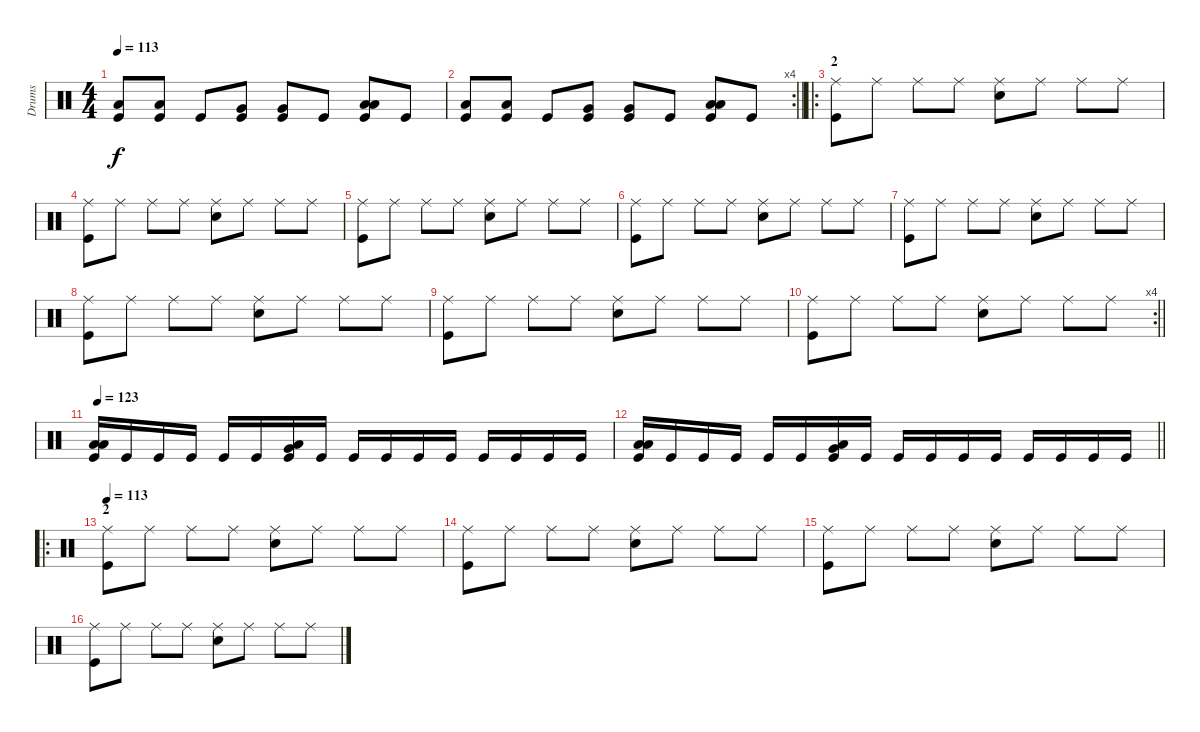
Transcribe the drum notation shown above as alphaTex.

\track ("Drums" "Drums") {instrument percussion}
\staff {score}
\articulation defaults
\ts (4 4)
\tempo 113
\clef neutral
\ks c
("Kick (hit)" "Low Tom (hit)").8{dy f} ("Kick (hit)" "Low Tom (hit)").8 "Kick (hit)".8 ("Kick (hit)" "Very Low Tom (hit)").8 ("Kick (hit)" "Very Low Tom (hit)").8 "Kick (hit)".8 ("Kick (hit)" "Low Floor Tom (hit)" "Low Floor Tom (hit)").8 "Kick (hit)".8 |
\rc 4
\barLineRight lightlight
("Kick (hit)" "Low Tom (hit)").8 ("Kick (hit)" "Low Tom (hit)").8 "Kick (hit)".8 ("Kick (hit)" "Very Low Tom (hit)").8 ("Kick (hit)" "Very Low Tom (hit)").8 "Kick (hit)".8 ("Kick (hit)" "Low Floor Tom (hit)" "Low Floor Tom (hit)").8 "Kick (hit)".8 |
\ro
\section ("" "2")
("Kick (hit)" "Ride (middle)").8 "Ride (middle)".8 "Ride (middle)".8 "Ride (middle)".8 ("Electric Snare (hit)" "Ride (middle)").8 "Ride (middle)".8 "Ride (middle)".8 "Ride (middle)".8 |
("Kick (hit)" "Ride (middle)").8 "Ride (middle)".8 "Ride (middle)".8 "Ride (middle)".8 ("Electric Snare (hit)" "Ride (middle)").8 "Ride (middle)".8 "Ride (middle)".8 "Ride (middle)".8 |
("Kick (hit)" "Ride (middle)").8 "Ride (middle)".8 "Ride (middle)".8 "Ride (middle)".8 ("Electric Snare (hit)" "Ride (middle)").8 "Ride (middle)".8 "Ride (middle)".8 "Ride (middle)".8 |
("Kick (hit)" "Ride (middle)").8 "Ride (middle)".8 "Ride (middle)".8 "Ride (middle)".8 ("Electric Snare (hit)" "Ride (middle)").8 "Ride (middle)".8 "Ride (middle)".8 "Ride (middle)".8 |
("Kick (hit)" "Ride (middle)").8 "Ride (middle)".8 "Ride (middle)".8 "Ride (middle)".8 ("Electric Snare (hit)" "Ride (middle)").8 "Ride (middle)".8 "Ride (middle)".8 "Ride (middle)".8 |
("Kick (hit)" "Ride (middle)").8 "Ride (middle)".8 "Ride (middle)".8 "Ride (middle)".8 ("Electric Snare (hit)" "Ride (middle)").8 "Ride (middle)".8 "Ride (middle)".8 "Ride (middle)".8 |
("Kick (hit)" "Ride (middle)").8 "Ride (middle)".8 "Ride (middle)".8 "Ride (middle)".8 ("Electric Snare (hit)" "Ride (middle)").8 "Ride (middle)".8 "Ride (middle)".8 "Ride (middle)".8 |
\rc 4
\barLineRight lightlight
("Kick (hit)" "Ride (middle)").8 "Ride (middle)".8 "Ride (middle)".8 "Ride (middle)".8 ("Electric Snare (hit)" "Ride (middle)").8 "Ride (middle)".8 "Ride (middle)".8 "Ride (middle)".8 |
\section ("" "")
\tempo 123
("Kick (hit)" "Low Floor Tom (hit)" "Low Tom (hit)").16 "Kick (hit)".16 "Kick (hit)".16 "Kick (hit)".16 "Kick (hit)".16 "Kick (hit)".16 ("Kick (hit)" "Low Floor Tom (hit)" "Very Low Tom (hit)").16 "Kick (hit)".16 "Kick (hit)".16 "Kick (hit)".16 "Kick (hit)".16 "Kick (hit)".16 "Kick (hit)".16 "Kick (hit)".16 "Kick (hit)".16 "Kick (hit)".16 |
\barLineRight lightlight
("Kick (hit)" "Low Floor Tom (hit)" "Low Tom (hit)").16 "Kick (hit)".16 "Kick (hit)".16 "Kick (hit)".16 "Kick (hit)".16 "Kick (hit)".16 ("Kick (hit)" "Low Floor Tom (hit)" "Very Low Tom (hit)").16 "Kick (hit)".16 "Kick (hit)".16 "Kick (hit)".16 "Kick (hit)".16 "Kick (hit)".16 "Kick (hit)".16 "Kick (hit)".16 "Kick (hit)".16 "Kick (hit)".16 |
\ro
\section ("" "2")
\tempo 113
("Kick (hit)" "Ride (middle)").8 "Ride (middle)".8 "Ride (middle)".8 "Ride (middle)".8 ("Electric Snare (hit)" "Ride (middle)").8 "Ride (middle)".8 "Ride (middle)".8 "Ride (middle)".8 |
("Kick (hit)" "Ride (middle)").8 "Ride (middle)".8 "Ride (middle)".8 "Ride (middle)".8 ("Electric Snare (hit)" "Ride (middle)").8 "Ride (middle)".8 "Ride (middle)".8 "Ride (middle)".8 |
("Kick (hit)" "Ride (middle)").8 "Ride (middle)".8 "Ride (middle)".8 "Ride (middle)".8 ("Electric Snare (hit)" "Ride (middle)").8 "Ride (middle)".8 "Ride (middle)".8 "Ride (middle)".8 |
("Kick (hit)" "Ride (middle)").8 "Ride (middle)".8 "Ride (middle)".8 "Ride (middle)".8 ("Electric Snare (hit)" "Ride (middle)").8 "Ride (middle)".8 "Ride (middle)".8 "Ride (middle)".8
